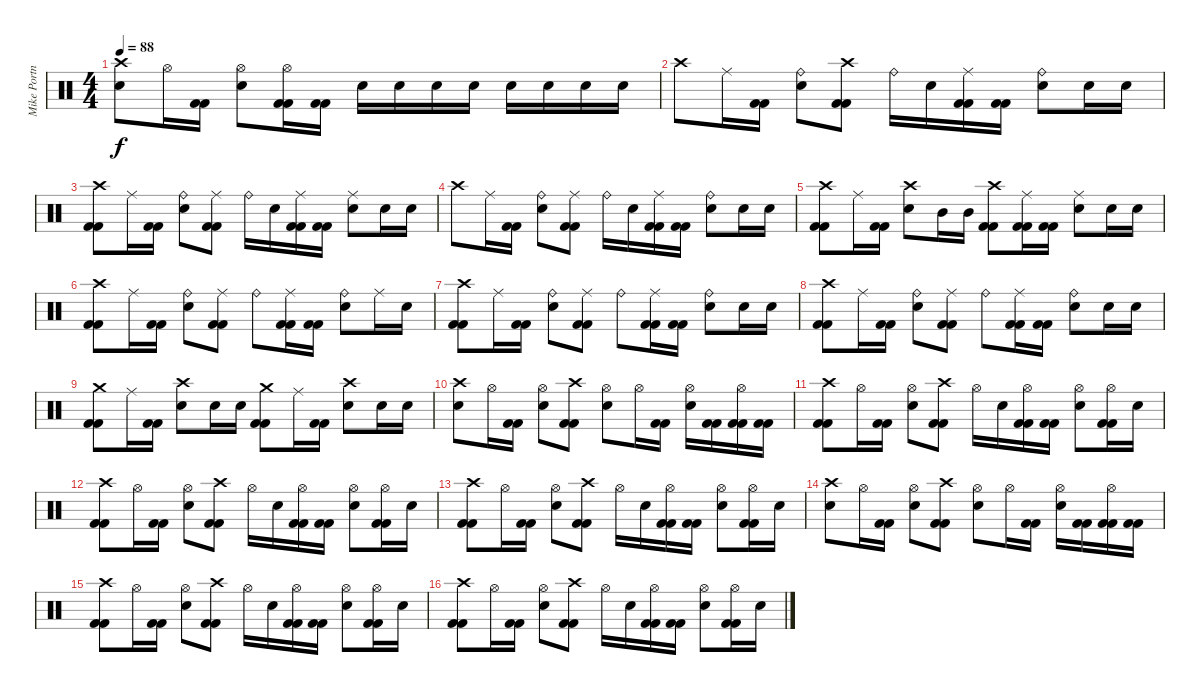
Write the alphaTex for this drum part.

\track ("Mike Portnoy" "Mike Portn") {instrument percussion}
\staff {score}
\articulation defaults
\ts (4 4)
\tempo 88
\clef neutral
\ks c
("Crash high (hit)" "Snare (hit) 2").8{dy f} "Hi-Hat (open)".16 ("Kick (hit) 2" "Kick (hit) 2").16 ("Hi-Hat (open)" "Snare (hit) 2").8 ("Hi-Hat (open)" "Kick (hit) 2" "Kick (hit) 2").16 ("Kick (hit) 2" "Kick (hit) 2").16 "Snare (hit) 2".16 "Snare (hit) 2".16 "Snare (hit) 2".16 "Snare (hit) 2".16 "Snare (hit) 2".16 "Snare (hit) 2".16 "Snare (hit) 2".16 "Snare (hit) 2".16 |
"Crash high (hit)".8 "Ride (middle)".16 ("Kick (hit) 2" "Kick (hit) 2").16 ("Ride (bell)" "Snare (hit) 2").8 ("Crash high (hit)" "Kick (hit) 2" "Kick (hit) 2").8 "Ride (bell)".16 "Snare (hit) 2".16 ("Ride (middle)" "Kick (hit) 2" "Kick (hit) 2").16 ("Kick (hit) 2" "Kick (hit) 2").16 ("Ride (bell)" "Snare (hit) 2").8 "Snare (hit) 2".16 "Snare (hit) 2".16 |
("Crash high (hit)" "Kick (hit) 2" "Kick (hit) 2").8 "Ride (middle)".16 ("Kick (hit) 2" "Kick (hit) 2").16 ("Ride (bell)" "Snare (hit) 2").8 ("Ride (middle)" "Kick (hit) 2" "Kick (hit) 2").8 "Ride (bell)".16 "Snare (hit) 2".16 ("Ride (middle)" "Kick (hit) 2" "Kick (hit) 2").16 ("Kick (hit) 2" "Kick (hit) 2").16 ("Ride (middle)" "Snare (hit) 2").8 "Snare (hit) 2".16 "Snare (hit) 2".16 |
"Crash high (hit)".8 "Ride (middle)".16 ("Kick (hit) 2" "Kick (hit) 2").16 ("Ride (bell)" "Snare (hit) 2").8 ("Ride (middle)" "Kick (hit) 2" "Kick (hit) 2").8 "Ride (bell)".16 "Snare (hit) 2".16 ("Ride (middle)" "Kick (hit) 2" "Kick (hit) 2").16 ("Kick (hit) 2" "Kick (hit) 2").16 ("Ride (bell)" "Snare (hit) 2").8 "Snare (hit) 2".16 "Snare (hit) 2".16 |
("Crash high (hit)" "Kick (hit) 2" "Kick (hit) 2").8 "Ride (middle)".16 ("Kick (hit) 2" "Kick (hit) 2").16 ("Crash high (hit)" "Snare (hit) 2").8 "Mid Tom (hit)".16 "Mid Tom (hit)".16 ("Crash high (hit)" "Kick (hit) 2" "Kick (hit) 2").8 ("Ride (middle)" "Kick (hit) 2" "Kick (hit) 2").16 ("Kick (hit) 2" "Kick (hit) 2").16 ("Ride (middle)" "Snare (hit) 2").8 "Snare (hit) 2".16 "Snare (hit) 2".16 |
("Crash high (hit)" "Kick (hit) 2" "Kick (hit) 2").8 "Ride (middle)".16 ("Kick (hit) 2" "Kick (hit) 2").16 ("Ride (bell)" "Snare (hit) 2").8 ("Ride (middle)" "Kick (hit) 2" "Kick (hit) 2").8 "Ride (bell)".8 ("Ride (middle)" "Kick (hit) 2" "Kick (hit) 2").16 ("Kick (hit) 2" "Kick (hit) 2").16 ("Ride (bell)" "Snare (hit) 2").8 "Ride (middle)".16 "Snare (hit) 2".16 |
("Crash high (hit)" "Kick (hit) 2" "Kick (hit) 2").8 "Ride (middle)".16 ("Kick (hit) 2" "Kick (hit) 2").16 ("Ride (bell)" "Snare (hit) 2").8 ("Ride (middle)" "Kick (hit) 2" "Kick (hit) 2").8 "Ride (bell)".8 ("Ride (middle)" "Kick (hit) 2" "Kick (hit) 2").16 ("Kick (hit) 2" "Kick (hit) 2").16 ("Ride (bell)" "Snare (hit) 2").8 "Snare (hit) 2".16 "Snare (hit) 2".16 |
("Crash high (hit)" "Kick (hit) 2" "Kick (hit) 2").8 "Ride (middle)".16 ("Kick (hit) 2" "Kick (hit) 2").16 ("Ride (bell)" "Snare (hit) 2").8 ("Ride (middle)" "Kick (hit) 2" "Kick (hit) 2").8 "Ride (bell)".8 ("Ride (middle)" "Kick (hit) 2" "Kick (hit) 2").16 ("Kick (hit) 2" "Kick (hit) 2").16 ("Ride (bell)" "Snare (hit) 2").8 "Snare (hit) 2".16 "Snare (hit) 2".16 |
("Crash medium (hit)" "Kick (hit) 2" "Kick (hit) 2").8 "Ride (middle)".16 ("Kick (hit) 2" "Kick (hit) 2").16 ("Crash high (hit)" "Snare (hit) 2").8 "Snare (hit) 2".16 "Snare (hit) 2".16 ("Crash medium (hit)" "Kick (hit) 2" "Kick (hit) 2").8 "Ride (middle)".16 ("Kick (hit) 2" "Kick (hit) 2").16 ("Crash high (hit)" "Snare (hit) 2").8 "Snare (hit) 2".16 "Snare (hit) 2".16 |
("Crash high (hit)" "Snare (hit) 2").8 "Hi-Hat (open)".16 ("Kick (hit) 2" "Kick (hit) 2").16 ("Hi-Hat (open)" "Snare (hit) 2").8 ("Crash high (hit)" "Kick (hit) 2" "Kick (hit) 2").8 ("Hi-Hat (open)" "Snare (hit) 2").8 "Hi-Hat (open)".16 ("Kick (hit) 2" "Kick (hit) 2").16 ("Hi-Hat (open)" "Snare (hit) 2").16 ("Kick (hit) 2" "Kick (hit) 2").16 ("Hi-Hat (open)" "Kick (hit) 2" "Kick (hit) 2").16 ("Kick (hit) 2" "Kick (hit) 2").16 |
("Crash high (hit)" "Kick (hit) 2" "Kick (hit) 2").8 "Hi-Hat (open)".16 ("Kick (hit) 2" "Kick (hit) 2").16 ("Hi-Hat (open)" "Snare (hit) 2").8 ("Crash high (hit)" "Kick (hit) 2" "Kick (hit) 2").8 "Hi-Hat (open)".16 "Snare (hit) 2".16 ("Hi-Hat (open)" "Kick (hit) 2" "Kick (hit) 2").16 ("Kick (hit) 2" "Kick (hit) 2").16 ("Hi-Hat (open)" "Snare (hit) 2").8 ("Hi-Hat (open)" "Kick (hit) 2" "Kick (hit) 2").16 "Snare (hit) 2".16 |
("Crash high (hit)" "Kick (hit) 2" "Kick (hit) 2").8 "Hi-Hat (open)".16 ("Kick (hit) 2" "Kick (hit) 2").16 ("Hi-Hat (open)" "Snare (hit) 2").8 ("Crash high (hit)" "Kick (hit) 2" "Kick (hit) 2").8 "Hi-Hat (open)".16 "Snare (hit) 2".16 ("Hi-Hat (open)" "Kick (hit) 2" "Kick (hit) 2").16 ("Kick (hit) 2" "Kick (hit) 2").16 ("Hi-Hat (open)" "Snare (hit) 2").8 ("Hi-Hat (open)" "Kick (hit) 2" "Kick (hit) 2").16 "Snare (hit) 2".16 |
("Crash high (hit)" "Kick (hit) 2" "Kick (hit) 2").8 "Hi-Hat (open)".16 ("Kick (hit) 2" "Kick (hit) 2").16 ("Hi-Hat (open)" "Snare (hit) 2").8 ("Crash high (hit)" "Kick (hit) 2" "Kick (hit) 2").8 "Hi-Hat (open)".16 "Snare (hit) 2".16 ("Hi-Hat (open)" "Kick (hit) 2" "Kick (hit) 2").16 ("Kick (hit) 2" "Kick (hit) 2").16 ("Hi-Hat (open)" "Snare (hit) 2").8 ("Hi-Hat (open)" "Kick (hit) 2" "Kick (hit) 2").16 "Snare (hit) 2".16 |
("Crash high (hit)" "Snare (hit) 2").8 "Hi-Hat (open)".16 ("Kick (hit) 2" "Kick (hit) 2").16 ("Hi-Hat (open)" "Snare (hit) 2").8 ("Crash high (hit)" "Kick (hit) 2" "Kick (hit) 2").8 ("Hi-Hat (open)" "Snare (hit) 2").8 "Hi-Hat (open)".16 ("Kick (hit) 2" "Kick (hit) 2").16 ("Hi-Hat (open)" "Snare (hit) 2").16 ("Kick (hit) 2" "Kick (hit) 2").16 ("Hi-Hat (open)" "Kick (hit) 2" "Kick (hit) 2").16 ("Kick (hit) 2" "Kick (hit) 2").16 |
("Crash high (hit)" "Kick (hit) 2" "Kick (hit) 2").8 "Hi-Hat (open)".16 ("Kick (hit) 2" "Kick (hit) 2").16 ("Hi-Hat (open)" "Snare (hit) 2").8 ("Crash high (hit)" "Kick (hit) 2" "Kick (hit) 2").8 "Hi-Hat (open)".16 "Snare (hit) 2".16 ("Hi-Hat (open)" "Kick (hit) 2" "Kick (hit) 2").16 ("Kick (hit) 2" "Kick (hit) 2").16 ("Hi-Hat (open)" "Snare (hit) 2").8 ("Hi-Hat (open)" "Kick (hit) 2" "Kick (hit) 2").16 "Snare (hit) 2".16 |
("Crash high (hit)" "Kick (hit) 2" "Kick (hit) 2").8 "Hi-Hat (open)".16 ("Kick (hit) 2" "Kick (hit) 2").16 ("Hi-Hat (open)" "Snare (hit) 2").8 ("Crash high (hit)" "Kick (hit) 2" "Kick (hit) 2").8 "Hi-Hat (open)".16 "Snare (hit) 2".16 ("Hi-Hat (open)" "Kick (hit) 2" "Kick (hit) 2").16 ("Kick (hit) 2" "Kick (hit) 2").16 ("Hi-Hat (open)" "Snare (hit) 2").8 ("Hi-Hat (open)" "Kick (hit) 2" "Kick (hit) 2").16 "Snare (hit) 2".16
